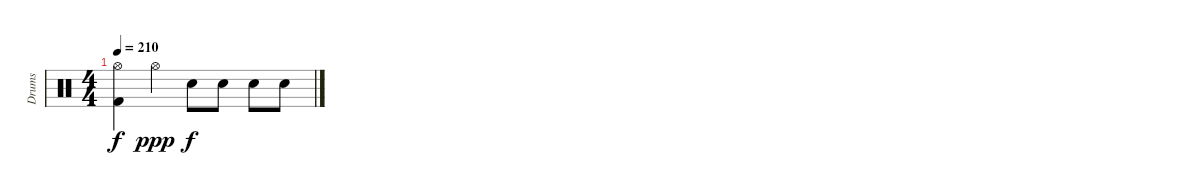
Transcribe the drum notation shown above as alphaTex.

\track ("Drums" "Drums") {instrument percussion}
\staff {score}
\articulation defaults
\ts (4 4)
\tempo 210
\clef neutral
\ks c
("Hi-Hat (open)" "Kick (hit) 2").4{dy f} "Hi-Hat (open)".4{dy ppp volume 0} "Electric Snare (hit)".8{dy f volume 16} "Electric Snare (hit)".8 "Electric Snare (hit)".8 "Electric Snare (hit)".8
